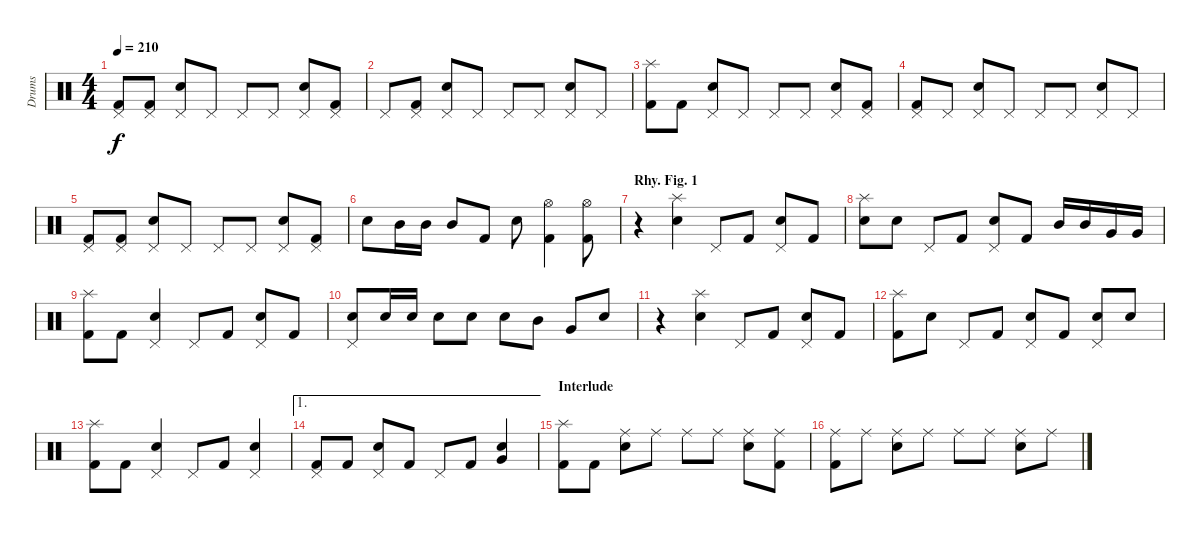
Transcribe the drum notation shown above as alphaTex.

\track ("Drums" "Drums") {instrument percussion}
\staff {score}
\articulation defaults
\ts (4 4)
\tempo 210
\clef neutral
\ks c
("Pedal Hi-Hat (hit)" "Kick (hit) 2").8{dy f} ("Pedal Hi-Hat (hit)" "Kick (hit) 2").8 ("Pedal Hi-Hat (hit)" "Electric Snare (hit)").8 "Pedal Hi-Hat (hit)".8 "Pedal Hi-Hat (hit)".8 "Pedal Hi-Hat (hit)".8 ("Pedal Hi-Hat (hit)" "Electric Snare (hit)").8 ("Pedal Hi-Hat (hit)" "Kick (hit) 2").8 |
"Pedal Hi-Hat (hit)".8 ("Pedal Hi-Hat (hit)" "Kick (hit) 2").8 ("Pedal Hi-Hat (hit)" "Electric Snare (hit)").8 "Pedal Hi-Hat (hit)".8 "Pedal Hi-Hat (hit)".8 "Pedal Hi-Hat (hit)".8 ("Pedal Hi-Hat (hit)" "Electric Snare (hit)").8 "Pedal Hi-Hat (hit)".8 |
("Splash (hit)" "Kick (hit) 2").8 "Kick (hit) 2".8 ("Pedal Hi-Hat (hit)" "Electric Snare (hit)").8 "Pedal Hi-Hat (hit)".8 "Pedal Hi-Hat (hit)".8 "Pedal Hi-Hat (hit)".8 ("Pedal Hi-Hat (hit)" "Electric Snare (hit)").8 ("Pedal Hi-Hat (hit)" "Kick (hit) 2").8 |
("Pedal Hi-Hat (hit)" "Kick (hit) 2").8 "Pedal Hi-Hat (hit)".8 ("Pedal Hi-Hat (hit)" "Electric Snare (hit)").8 "Pedal Hi-Hat (hit)".8 "Pedal Hi-Hat (hit)".8 "Pedal Hi-Hat (hit)".8 ("Pedal Hi-Hat (hit)" "Electric Snare (hit)").8 "Pedal Hi-Hat (hit)".8 |
("Pedal Hi-Hat (hit)" "Kick (hit) 2").8 ("Pedal Hi-Hat (hit)" "Kick (hit) 2").8 ("Pedal Hi-Hat (hit)" "Electric Snare (hit)").8 "Pedal Hi-Hat (hit)".8 "Pedal Hi-Hat (hit)".8 "Pedal Hi-Hat (hit)".8 ("Pedal Hi-Hat (hit)" "Electric Snare (hit)").8 ("Pedal Hi-Hat (hit)" "Kick (hit) 2").8 |
"Electric Snare (hit)".8 "Mid Tom (hit)".16 "Mid Tom (hit)".16 "Mid Tom (hit)".8 "Kick (hit) 2".8 "Electric Snare (hit)".8 ("Hi-Hat (open)" "Kick (hit) 2").4 ("Hi-Hat (open)" "Kick (hit) 2").8 |
\section ("" "Rhy. Fig. 1")
r.4 ("Splash (hit)" "Electric Snare (hit)").4 "Pedal Hi-Hat (hit)".8 "Kick (hit) 2".8 ("Pedal Hi-Hat (hit)" "Electric Snare (hit)").8 "Kick (hit) 2".8 |
("Splash (hit)" "Electric Snare (hit)").8 "Electric Snare (hit)".8 "Pedal Hi-Hat (hit)".8 "Kick (hit) 2".8 ("Pedal Hi-Hat (hit)" "Electric Snare (hit)").8 "Kick (hit) 2".8 "Mid Tom (hit)".16 "Mid Tom (hit)".16 "Very Low Tom (hit)".16 "Very Low Tom (hit)".16 |
("Splash (hit)" "Kick (hit) 2").8 "Kick (hit) 2".8 ("Pedal Hi-Hat (hit)" "Electric Snare (hit)").4 "Pedal Hi-Hat (hit)".8 "Kick (hit) 2".8 ("Pedal Hi-Hat (hit)" "Electric Snare (hit)").8 "Kick (hit) 2".8 |
("Pedal Hi-Hat (hit)" "Electric Snare (hit)").8 "Electric Snare (hit)".16 "Electric Snare (hit)".16 "Electric Snare (hit)".8 "Electric Snare (hit)".8 "Electric Snare (hit)".8 "Mid Tom (hit)".8 "Very Low Tom (hit)".8 "Electric Snare (hit)".8 |
r.4 ("Splash (hit)" "Electric Snare (hit)").4 "Pedal Hi-Hat (hit)".8 "Kick (hit) 2".8 ("Pedal Hi-Hat (hit)" "Electric Snare (hit)").8 "Kick (hit) 2".8 |
("Splash (hit)" "Kick (hit) 2").8 "Electric Snare (hit)".8 "Pedal Hi-Hat (hit)".8 "Kick (hit) 2".8 ("Pedal Hi-Hat (hit)" "Electric Snare (hit)").8 "Kick (hit) 2".8 ("Pedal Hi-Hat (hit)" "Electric Snare (hit)").8 "Electric Snare (hit)".8 |
("Splash (hit)" "Kick (hit) 2").8 "Kick (hit) 2".8 ("Pedal Hi-Hat (hit)" "Electric Snare (hit)").4 "Pedal Hi-Hat (hit)".8 "Kick (hit) 2".8 ("Pedal Hi-Hat (hit)" "Electric Snare (hit)").4 |
\ae 1
("Pedal Hi-Hat (hit)" "Kick (hit) 2").8 "Kick (hit) 2".8 ("Pedal Hi-Hat (hit)" "Electric Snare (hit)").8 "Kick (hit) 2".8 "Pedal Hi-Hat (hit)".8 "Kick (hit) 2".8 ("Very Low Tom (hit)" "Electric Snare (hit)").4 |
\section ("" "Interlude")
("Splash (hit)" "Kick (hit) 2").8 "Kick (hit) 2".8 ("Ride (middle)" "Electric Snare (hit)").8 "Ride (middle)".8 "Ride (middle)".8 "Ride (middle)".8 ("Ride (middle)" "Electric Snare (hit)").8 ("Ride (middle)" "Kick (hit) 2").8 |
("Ride (middle)" "Kick (hit) 2").8 "Ride (middle)".8 ("Ride (middle)" "Electric Snare (hit)").8 "Ride (middle)".8 "Ride (middle)".8 "Ride (middle)".8 ("Ride (middle)" "Electric Snare (hit)").8 "Ride (middle)".8
